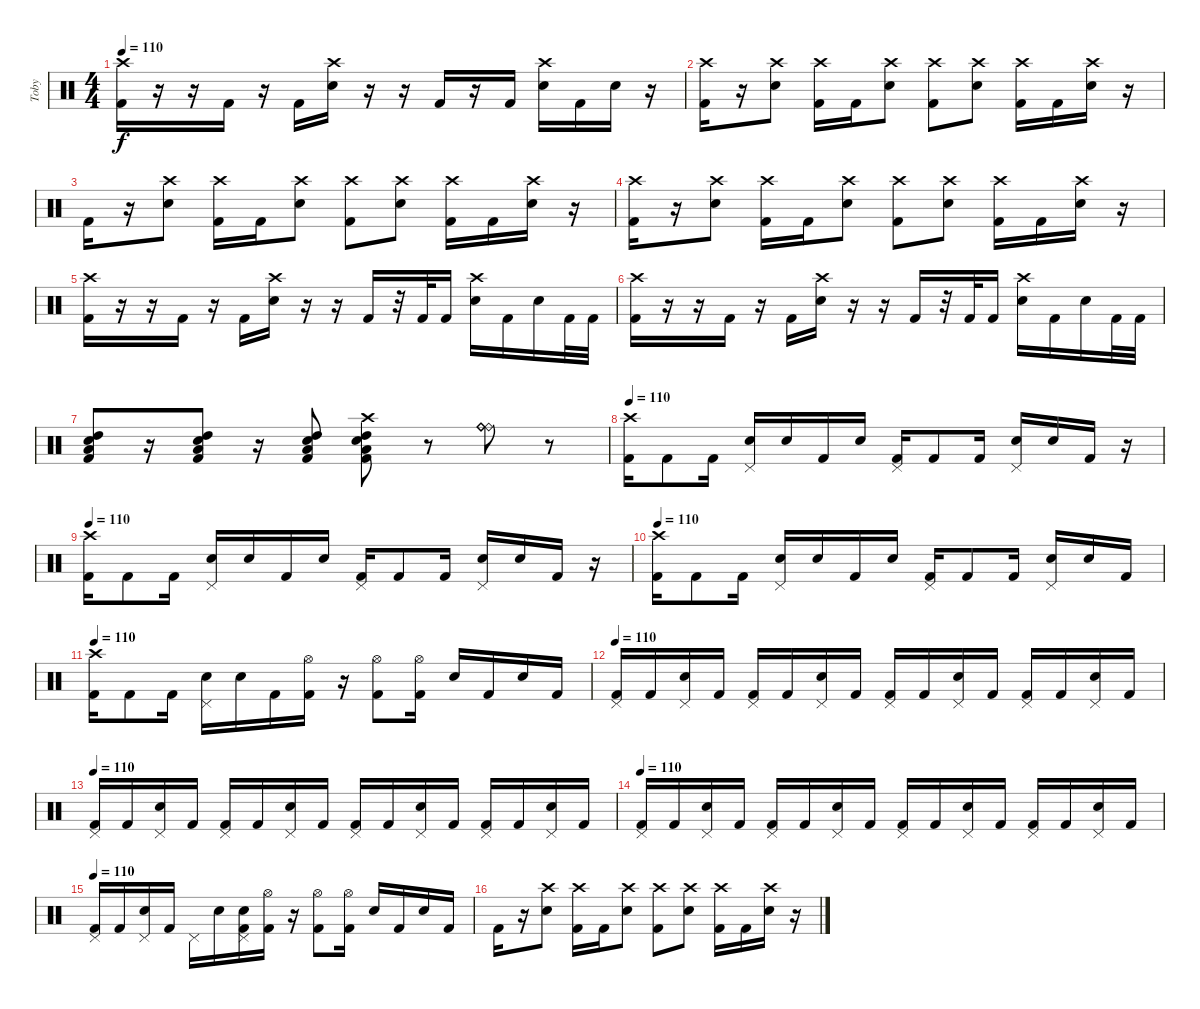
\track ("Toby" "Toby") {instrument percussion}
\staff {score}
\articulation defaults
\ts (4 4)
\tempo 110
\clef neutral
\ks c
("Crash high (hit)" "Kick (hit) 2").16{dy f} r.16 r.16 "Kick (hit) 2".16 r.16 "Kick (hit) 2".16 ("Crash high (hit)" "Electric Snare (hit)").16 r.16 r.16 "Kick (hit) 2".16 r.16 "Kick (hit) 2".16 ("Crash high (hit)" "Electric Snare (hit)").16 "Kick (hit) 2".16 "Electric Snare (hit)".16 r.16 |
("Crash high (hit)" "Kick (hit) 2").16 r.16 ("Crash high (hit)" "Electric Snare (hit)").8 ("Crash high (hit)" "Kick (hit) 2").16 "Kick (hit) 2".16 ("Crash high (hit)" "Electric Snare (hit)").8 ("Crash high (hit)" "Kick (hit) 2").8 ("Crash high (hit)" "Electric Snare (hit)").8 ("Crash high (hit)" "Kick (hit) 2").16 "Kick (hit) 2".16 ("Crash high (hit)" "Electric Snare (hit)").16 r.16 |
"Kick (hit) 2".16 r.16 ("Crash high (hit)" "Electric Snare (hit)").8 ("Crash high (hit)" "Kick (hit) 2").16 "Kick (hit) 2".16 ("Crash high (hit)" "Electric Snare (hit)").8 ("Crash high (hit)" "Kick (hit) 2").8 ("Crash high (hit)" "Electric Snare (hit)").8 ("Crash high (hit)" "Kick (hit) 2").16 "Kick (hit) 2".16 ("Crash high (hit)" "Electric Snare (hit)").16 r.16 |
("Crash high (hit)" "Kick (hit) 2").16 r.16 ("Crash high (hit)" "Electric Snare (hit)").8 ("Crash high (hit)" "Kick (hit) 2").16 "Kick (hit) 2".16 ("Crash high (hit)" "Electric Snare (hit)").8 ("Crash high (hit)" "Kick (hit) 2").8 ("Crash high (hit)" "Electric Snare (hit)").8 ("Crash high (hit)" "Kick (hit) 2").16 "Kick (hit) 2".16 ("Crash high (hit)" "Electric Snare (hit)").16 r.16 |
("Crash high (hit)" "Kick (hit) 2").16 r.16 r.16 "Kick (hit) 2".16 r.16 "Kick (hit) 2".16 ("Crash high (hit)" "Electric Snare (hit)").16 r.16 r.16 "Kick (hit) 2".16 r.32 "Kick (hit) 2".32 "Kick (hit) 2".16 ("Crash high (hit)" "Electric Snare (hit)").16 "Kick (hit) 2".16 "Electric Snare (hit)".16 "Kick (hit) 2".32 "Kick (hit) 2".32 |
("Crash high (hit)" "Kick (hit) 2").16 r.16 r.16 "Kick (hit) 2".16 r.16 "Kick (hit) 2".16 ("Crash high (hit)" "Electric Snare (hit)").16 r.16 r.16 "Kick (hit) 2".16 r.32 "Kick (hit) 2".32 "Kick (hit) 2".16 ("Crash high (hit)" "Electric Snare (hit)").16 "Kick (hit) 2".16 "Electric Snare (hit)".16 "Kick (hit) 2".32 "Kick (hit) 2".32 |
("Electric Snare (hit)" "High Tom (hit)" "Kick (hit) 2" "Low Tom (hit)").8 r.16 ("Electric Snare (hit)" "High Tom (hit)" "Kick (hit) 2" "Low Tom (hit)").8 r.16 ("Electric Snare (hit)" "High Tom (hit)" "Kick (hit) 2" "Low Tom (hit)").8 ("Electric Snare (hit)" "High Tom (hit)" "Kick (hit) 2" "Crash high (hit)" "Low Tom (hit)").8 r.8 ("Ride (bell)" "Ride (bell)" "Ride (bell)" "Ride (bell)" "Ride (bell)").8 r.8 |
\tempo 110
("Crash high (hit)" "Kick (hit) 2").16 "Kick (hit) 2".8 "Kick (hit) 2".16 ("Pedal Hi-Hat (hit)" "Electric Snare (hit)").16 "Snare (hit)".16 "Kick (hit) 2".16 "Snare (hit)".16 ("Pedal Hi-Hat (hit)" "Kick (hit) 2").16 "Kick (hit) 2".8 "Kick (hit) 2".16 ("Pedal Hi-Hat (hit)" "Electric Snare (hit)").16 "Snare (hit)".16 "Kick (hit) 2".16 r.16 |
\tempo 110
("Crash high (hit)" "Kick (hit) 2").16 "Kick (hit) 2".8 "Kick (hit) 2".16 ("Pedal Hi-Hat (hit)" "Electric Snare (hit)").16 "Snare (hit)".16 "Kick (hit) 2".16 "Snare (hit)".16 ("Pedal Hi-Hat (hit)" "Kick (hit) 2").16 "Kick (hit) 2".8 "Kick (hit) 2".16 ("Pedal Hi-Hat (hit)" "Electric Snare (hit)").16 "Snare (hit)".16 "Kick (hit) 2".16 r.16 |
\tempo 110
("Crash high (hit)" "Kick (hit) 2").16 "Kick (hit) 2".8 "Kick (hit) 2".16 ("Pedal Hi-Hat (hit)" "Electric Snare (hit)").16 "Snare (hit)".16 "Kick (hit) 2".16 "Snare (hit)".16 ("Pedal Hi-Hat (hit)" "Kick (hit) 2").16 "Kick (hit) 2".8 "Kick (hit) 2".16 ("Pedal Hi-Hat (hit)" "Electric Snare (hit)").16 "Snare (hit)".16 "Kick (hit) 2".16 |
\tempo 110
("Crash high (hit)" "Kick (hit) 2").16 "Kick (hit) 2".8 "Kick (hit) 2".16 ("Pedal Hi-Hat (hit)" "Electric Snare (hit)").16 "Snare (hit)".16 "Kick (hit) 2".16 ("Hi-Hat (open)" "Kick (hit) 2").16 r.16 ("Hi-Hat (open)" "Kick (hit) 2").8 ("Hi-Hat (open)" "Kick (hit) 2").16 "Snare (hit)".16 "Kick (hit) 2".16 "Electric Snare (hit)".16 "Kick (hit) 2".16 |
\tempo 110
("Pedal Hi-Hat (hit)" "Kick (hit) 2").16 "Kick (hit) 2".16 ("Pedal Hi-Hat (hit)" "Electric Snare (hit)").16 "Kick (hit) 2".16 ("Pedal Hi-Hat (hit)" "Kick (hit) 2").16 "Kick (hit) 2".16 ("Pedal Hi-Hat (hit)" "Electric Snare (hit)").16 "Kick (hit) 2".16 ("Pedal Hi-Hat (hit)" "Kick (hit) 2").16 "Kick (hit) 2".16 ("Pedal Hi-Hat (hit)" "Electric Snare (hit)").16 "Kick (hit) 2".16 ("Pedal Hi-Hat (hit)" "Kick (hit) 2").16 "Kick (hit) 2".16 ("Pedal Hi-Hat (hit)" "Electric Snare (hit)").16 "Kick (hit) 2".16 |
\tempo 110
("Pedal Hi-Hat (hit)" "Kick (hit) 2").16 "Kick (hit) 2".16 ("Pedal Hi-Hat (hit)" "Electric Snare (hit)").16 "Kick (hit) 2".16 ("Pedal Hi-Hat (hit)" "Kick (hit) 2").16 "Kick (hit) 2".16 ("Pedal Hi-Hat (hit)" "Electric Snare (hit)").16 "Kick (hit) 2".16 ("Pedal Hi-Hat (hit)" "Kick (hit) 2").16 "Kick (hit) 2".16 ("Pedal Hi-Hat (hit)" "Electric Snare (hit)").16 "Kick (hit) 2".16 ("Pedal Hi-Hat (hit)" "Kick (hit) 2").16 "Kick (hit) 2".16 ("Pedal Hi-Hat (hit)" "Electric Snare (hit)").16 "Kick (hit) 2".16 |
\tempo 110
("Pedal Hi-Hat (hit)" "Kick (hit) 2").16 "Kick (hit) 2".16 ("Pedal Hi-Hat (hit)" "Electric Snare (hit)").16 "Kick (hit) 2".16 ("Pedal Hi-Hat (hit)" "Kick (hit) 2").16 "Kick (hit) 2".16 ("Pedal Hi-Hat (hit)" "Electric Snare (hit)").16 "Kick (hit) 2".16 ("Pedal Hi-Hat (hit)" "Kick (hit) 2").16 "Kick (hit) 2".16 ("Pedal Hi-Hat (hit)" "Electric Snare (hit)").16 "Kick (hit) 2".16 ("Pedal Hi-Hat (hit)" "Kick (hit) 2").16 "Kick (hit) 2".16 ("Pedal Hi-Hat (hit)" "Electric Snare (hit)").16 "Kick (hit) 2".16 |
\tempo 110
("Pedal Hi-Hat (hit)" "Kick (hit) 2").16 "Kick (hit) 2".16 ("Pedal Hi-Hat (hit)" "Electric Snare (hit)").16 "Kick (hit) 2".16 "Pedal Hi-Hat (hit)".16 "Snare (hit)".16 ("Pedal Hi-Hat (hit)" "Electric Snare (hit)" "Kick (hit) 2").16 ("Hi-Hat (open)" "Kick (hit) 2").16 r.16 ("Hi-Hat (open)" "Kick (hit) 2").8 ("Hi-Hat (open)" "Kick (hit) 2").16 "Snare (hit)".16 "Kick (hit) 2".16 "Electric Snare (hit)".16 "Kick (hit) 2".16 |
"Kick (hit) 2".16 r.16 ("Crash high (hit)" "Electric Snare (hit)").8 ("Crash high (hit)" "Kick (hit) 2").16 "Kick (hit) 2".16 ("Crash high (hit)" "Electric Snare (hit)").8 ("Crash high (hit)" "Kick (hit) 2").8 ("Crash high (hit)" "Electric Snare (hit)").8 ("Crash high (hit)" "Kick (hit) 2").16 "Kick (hit) 2".16 ("Crash high (hit)" "Electric Snare (hit)").16 r.16
